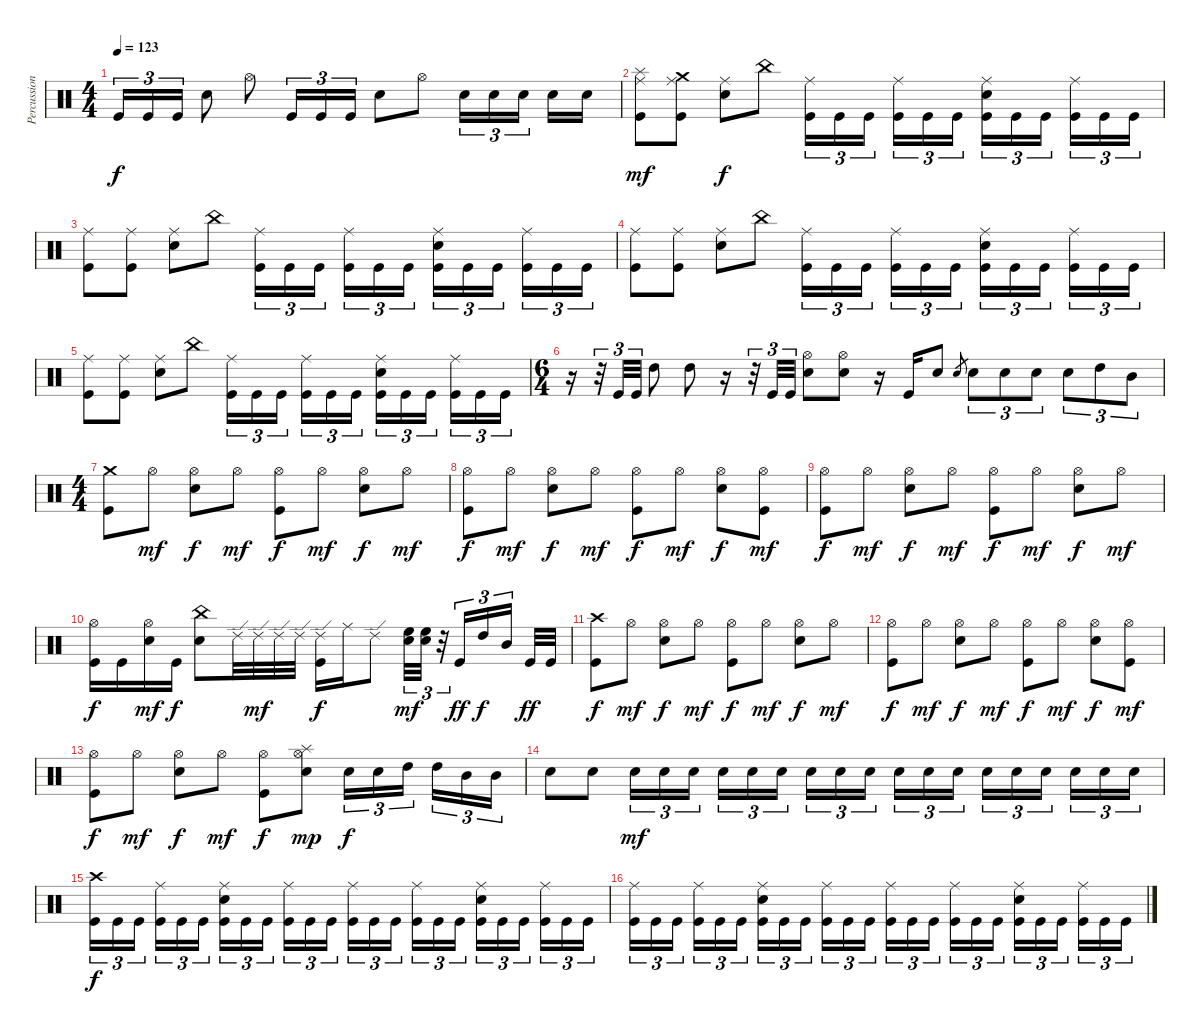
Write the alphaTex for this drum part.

\track ("Percussions" "Percussion") {instrument percussion}
\staff {score}
\articulation defaults
\ts (4 4)
\tempo 123
\clef neutral
\ks c "Kick (hit)".16{tu (3 2) dy f} "Kick (hit)".16{tu (3 2)} "Kick (hit)".16{tu (3 2)} "Electric Snare (hit)".8 "Hi-Hat (open)".8 "Kick (hit)".16{tu (3 2)} "Kick (hit)".16{tu (3 2)} "Kick (hit)".16{tu (3 2)} "Electric Snare (hit)".8 "Hi-Hat (open)".8 "Electric Snare (hit)".16{tu (3 2)} "Electric Snare (hit)".16{tu (3 2)} "Electric Snare (hit)".16{tu (3 2)} "Electric Snare (hit)".16 "Electric Snare (hit)".16
|
("Splash (hit)" "Ride (middle)" "Kick (hit)").8{dy mf} ("Crash medium (hit)" "Ride (middle)" "Kick (hit)").8 ("Ride (middle)" "Electric Snare (hit)").8{dy f} "China (hit)".8 ("Ride (middle)" "Kick (hit)").16{tu (3 2)} "Kick (hit)".16{tu (3 2)} "Kick (hit)".16{tu (3 2)} ("Ride (middle)" "Kick (hit)").16{tu (3 2)} "Kick (hit)".16{tu (3 2)} "Kick (hit)".16{tu (3 2)} ("Ride (middle)" "Electric Snare (hit)" "Kick (hit)").16{tu (3 2)} "Kick (hit)".16{tu (3 2)} "Kick (hit)".16{tu (3 2)} ("Ride (middle)" "Kick (hit)").16{tu (3 2)} "Kick (hit)".16{tu (3 2)} "Kick (hit)".16{tu (3 2)} |
("Ride (middle)" "Kick (hit)").8 ("Ride (middle)" "Kick (hit)").8 ("Ride (middle)" "Electric Snare (hit)").8 "China (hit)".8 ("Ride (middle)" "Kick (hit)").16{tu (3 2)} "Kick (hit)".16{tu (3 2)} "Kick (hit)".16{tu (3 2)} ("Ride (middle)" "Kick (hit)").16{tu (3 2)} "Kick (hit)".16{tu (3 2)} "Kick (hit)".16{tu (3 2)} ("Ride (middle)" "Electric Snare (hit)" "Kick (hit)").16{tu (3 2)} "Kick (hit)".16{tu (3 2)} "Kick (hit)".16{tu (3 2)} ("Ride (middle)" "Kick (hit)").16{tu (3 2)} "Kick (hit)".16{tu (3 2)} "Kick (hit)".16{tu (3 2)} |
("Ride (middle)" "Kick (hit)").8 ("Ride (middle)" "Kick (hit)").8 ("Ride (middle)" "Electric Snare (hit)").8 "China (hit)".8 ("Ride (middle)" "Kick (hit)").16{tu (3 2)} "Kick (hit)".16{tu (3 2)} "Kick (hit)".16{tu (3 2)} ("Ride (middle)" "Kick (hit)").16{tu (3 2)} "Kick (hit)".16{tu (3 2)} "Kick (hit)".16{tu (3 2)} ("Ride (middle)" "Electric Snare (hit)" "Kick (hit)").16{tu (3 2)} "Kick (hit)".16{tu (3 2)} "Kick (hit)".16{tu (3 2)} ("Ride (middle)" "Kick (hit)").16{tu (3 2)} "Kick (hit)".16{tu (3 2)} "Kick (hit)".16{tu (3 2)} |
("Ride (middle)" "Kick (hit)").8 ("Ride (middle)" "Kick (hit)").8 ("Ride (middle)" "Electric Snare (hit)").8 "China (hit)".8 ("Ride (middle)" "Kick (hit)").16{tu (3 2)} "Kick (hit)".16{tu (3 2)} "Kick (hit)".16{tu (3 2)} ("Ride (middle)" "Kick (hit)").16{tu (3 2)} "Kick (hit)".16{tu (3 2)} "Kick (hit)".16{tu (3 2)} ("Ride (middle)" "Electric Snare (hit)" "Kick (hit)").16{tu (3 2)} "Kick (hit)".16{tu (3 2)} "Kick (hit)".16{tu (3 2)} ("Ride (middle)" "Kick (hit)").16{tu (3 2)} "Kick (hit)".16{tu (3 2)} "Kick (hit)".16{tu (3 2)} |
\ts (6 4)
r.16 r.32{tu (3 2)} "Kick (hit)".32{tu (3 2)} "Kick (hit)".32{tu (3 2)} "High Tom (hit)".8 "High Tom (hit)".8 r.16 r.32{tu (3 2)} "Kick (hit)".32{tu (3 2)} "Kick (hit)".32{tu (3 2)} ("Hi-Hat (open)" "Electric Snare (hit)").8 ("Hi-Hat (open)" "Electric Snare (hit)").8 r.16 "Kick (hit)".16 "Electric Snare (hit)".8 "Electric Snare (hit)".8{gr} "Electric Snare (hit)".8{tu (3 2)} "Electric Snare (hit)".8{tu (3 2)} "Electric Snare (hit)".8{tu (3 2)} "Electric Snare (hit)".8{tu (3 2)} "High Tom (hit)".8{tu (3 2)} "Mid Tom (hit)".8{tu (3 2)} |
\ts (4 4)
("Crash medium (hit)" "Kick (hit)").8 "Hi-Hat (open)".8{dy mf} ("Hi-Hat (open)" "Electric Snare (hit)").8{dy f} "Hi-Hat (open)".8{dy mf} ("Hi-Hat (open)" "Kick (hit)").8{dy f} "Hi-Hat (open)".8{dy mf} ("Hi-Hat (open)" "Electric Snare (hit)").8{dy f} "Hi-Hat (open)".8{dy mf} |
("Hi-Hat (open)" "Kick (hit)").8{dy f} "Hi-Hat (open)".8{dy mf} ("Hi-Hat (open)" "Electric Snare (hit)").8{dy f} "Hi-Hat (open)".8{dy mf} ("Hi-Hat (open)" "Kick (hit)").8{dy f} "Hi-Hat (open)".8{dy mf} ("Hi-Hat (open)" "Electric Snare (hit)").8{dy f} ("Hi-Hat (open)" "Kick (hit)").8{dy mf} |
("Hi-Hat (open)" "Kick (hit)").8{dy f} "Hi-Hat (open)".8{dy mf} ("Hi-Hat (open)" "Electric Snare (hit)").8{dy f} "Hi-Hat (open)".8{dy mf} ("Hi-Hat (open)" "Kick (hit)").8{dy f} "Hi-Hat (open)".8{dy mf} ("Hi-Hat (open)" "Electric Snare (hit)").8{dy f} "Hi-Hat (open)".8{dy mf} |
("Hi-Hat (open)" "Kick (hit)").16{dy f} "Kick (hit)".16 ("Hi-Hat (open)" "Snare (hit)").16{dy mf} "Kick (hit)".16{dy f} ("China (hit)" "Electric Snare (hit)").8 "Ride (edge) 2".32 "Ride (edge) 2".32{dy mf} "Ride (edge) 2".32 "Ride (edge) 2".32 ("Ride (edge) 2" "Kick (hit)").16{dy f} "Ride (middle)".16 "Ride (edge) 2".8 ("High Floor Tom (hit)" "Electric Snare (hit)").32{tu (3 2) dy mf} ("High Floor Tom (hit)" "Electric Snare (hit)").32{tu (3 2)} r.32{tu (3 2)} "Kick (hit)".16{tu (3 2) dy ff} "High Tom (hit)".16{tu (3 2) dy f} "Mid Tom (hit)".16{tu (3 2)} "Kick (hit)".32{dy ff} "Kick (hit)".32 |
("Crash high (hit)" "Kick (hit)").8{dy f} "Hi-Hat (open)".8{dy mf} ("Hi-Hat (open)" "Electric Snare (hit)").8{dy f} "Hi-Hat (open)".8{dy mf} ("Hi-Hat (open)" "Kick (hit)").8{dy f} "Hi-Hat (open)".8{dy mf} ("Hi-Hat (open)" "Electric Snare (hit)").8{dy f} "Hi-Hat (open)".8{dy mf} |
("Hi-Hat (open)" "Kick (hit)").8{dy f} "Hi-Hat (open)".8{dy mf} ("Hi-Hat (open)" "Electric Snare (hit)").8{dy f} "Hi-Hat (open)".8{dy mf} ("Hi-Hat (open)" "Kick (hit)").8{dy f} "Hi-Hat (open)".8{dy mf} ("Hi-Hat (open)" "Electric Snare (hit)").8{dy f} ("Hi-Hat (open)" "Kick (hit)").8{dy mf} |
("Hi-Hat (open)" "Kick (hit)").8{dy f} "Hi-Hat (open)".8{dy mf} ("Hi-Hat (open)" "Electric Snare (hit)").8{dy f} "Hi-Hat (open)".8{dy mf} ("Hi-Hat (open)" "Kick (hit)").8{dy f} ("Splash (hit)" "Hi-Hat (open)" "Electric Snare (hit)").8{dy mp} "Electric Snare (hit)".16{tu (3 2) dy f} "Electric Snare (hit)".16{tu (3 2)} "High Tom (hit)".16{tu (3 2)} "High Tom (hit)".16{tu (3 2)} "Mid Tom (hit)".16{tu (3 2)} "Mid Tom (hit)".16{tu (3 2)} |
"Electric Snare (hit)".8 "Electric Snare (hit)".8 "Electric Snare (hit)".16{tu (3 2) dy mf} "Electric Snare (hit)".16{tu (3 2)} "Electric Snare (hit)".16{tu (3 2)} "Electric Snare (hit)".16{tu (3 2)} "Electric Snare (hit)".16{tu (3 2)} "Electric Snare (hit)".16{tu (3 2)} "Electric Snare (hit)".16{tu (3 2)} "Electric Snare (hit)".16{tu (3 2)} "Electric Snare (hit)".16{tu (3 2)} "Electric Snare (hit)".16{tu (3 2)} "Electric Snare (hit)".16{tu (3 2)} "Electric Snare (hit)".16{tu (3 2)} "Electric Snare (hit)".16{tu (3 2)} "Electric Snare (hit)".16{tu (3 2)} "Electric Snare (hit)".16{tu (3 2)} "Electric Snare (hit)".16{tu (3 2)} "Electric Snare (hit)".16{tu (3 2)} "Electric Snare (hit)".16{tu (3 2)} |
("Crash high (hit)" "Kick (hit)").16{tu (3 2) dy f} "Kick (hit)".16{tu (3 2)} "Kick (hit)".16{tu (3 2)} ("Ride (middle)" "Kick (hit)").16{tu (3 2)} "Kick (hit)".16{tu (3 2)} "Kick (hit)".16{tu (3 2)} ("Ride (middle)" "Electric Snare (hit)" "Kick (hit)").16{tu (3 2)} "Kick (hit)".16{tu (3 2)} "Kick (hit)".16{tu (3 2)} ("Ride (middle)" "Kick (hit)").16{tu (3 2)} "Kick (hit)".16{tu (3 2)} "Kick (hit)".16{tu (3 2)} ("Ride (middle)" "Kick (hit)").16{tu (3 2)} "Kick (hit)".16{tu (3 2)} "Kick (hit)".16{tu (3 2)} ("Ride (middle)" "Kick (hit)").16{tu (3 2)} "Kick (hit)".16{tu (3 2)} "Kick (hit)".16{tu (3 2)} ("Ride (middle)" "Electric Snare (hit)" "Kick (hit)").16{tu (3 2)} "Kick (hit)".16{tu (3 2)} "Kick (hit)".16{tu (3 2)} ("Ride (middle)" "Kick (hit)").16{tu (3 2)} "Kick (hit)".16{tu (3 2)} "Kick (hit)".16{tu (3 2)} |
("Ride (middle)" "Kick (hit)").16{tu (3 2)} "Kick (hit)".16{tu (3 2)} "Kick (hit)".16{tu (3 2)} ("Ride (middle)" "Kick (hit)").16{tu (3 2)} "Kick (hit)".16{tu (3 2)} "Kick (hit)".16{tu (3 2)} ("Ride (middle)" "Electric Snare (hit)" "Kick (hit)").16{tu (3 2)} "Kick (hit)".16{tu (3 2)} "Kick (hit)".16{tu (3 2)} ("Ride (middle)" "Kick (hit)").16{tu (3 2)} "Kick (hit)".16{tu (3 2)} "Kick (hit)".16{tu (3 2)} ("Ride (middle)" "Kick (hit)").16{tu (3 2)} "Kick (hit)".16{tu (3 2)} "Kick (hit)".16{tu (3 2)} ("Ride (middle)" "Kick (hit)").16{tu (3 2)} "Kick (hit)".16{tu (3 2)} "Kick (hit)".16{tu (3 2)} ("Ride (middle)" "Electric Snare (hit)" "Kick (hit)").16{tu (3 2)} "Kick (hit)".16{tu (3 2)} "Kick (hit)".16{tu (3 2)} ("Ride (middle)" "Kick (hit)").16{tu (3 2)} "Kick (hit)".16{tu (3 2)} "Kick (hit)".16{tu (3 2)}
